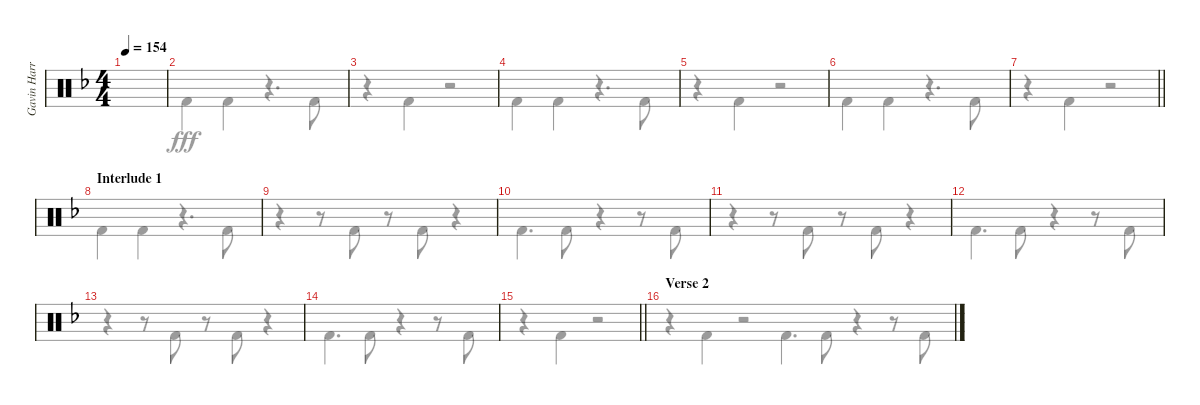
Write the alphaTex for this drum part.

\track ("Gavin Harrison Bass Pedal" "Gavin Harr") {instrument percussion}
\staff {score}
\articulation defaults
\voice
\ts (4 4)
\tempo 154
\clef neutral
\ks dminor
|
|
|
|
|
|
\barLineRight lightlight
|
\section ("" "Interlude 1")
|
|
|
|
|
|
|
\barLineRight lightlight
|
\section ("" "Verse 2")
\voice
\clef neutral
\ks dminor
r.4{dy fff} "Kick (hit) 2".4 r.2 |
"Kick (hit) 2".4 "Kick (hit) 2".4 r.4{d} "Kick (hit) 2".8 |
r.4 "Kick (hit) 2".4 r.2 |
"Kick (hit) 2".4 "Kick (hit) 2".4 r.4{d} "Kick (hit) 2".8 |
r.4 "Kick (hit) 2".4 r.2 |
"Kick (hit) 2".4 "Kick (hit) 2".4 r.4{d} "Kick (hit) 2".8 |
\barLineRight lightlight
r.4 "Kick (hit) 2".4 r.2 |
"Kick (hit) 2".4 "Kick (hit) 2".4 r.4{d} "Kick (hit) 2".8 |
r.4 r.8 "Kick (hit) 2".8 r.8 "Kick (hit) 2".8 r.4 |
"Kick (hit) 2".4{d} "Kick (hit) 2".8 r.4 r.8 "Kick (hit) 2".8 |
r.4 r.8 "Kick (hit) 2".8 r.8 "Kick (hit) 2".8 r.4 |
"Kick (hit) 2".4{d} "Kick (hit) 2".8 r.4 r.8 "Kick (hit) 2".8 |
r.4 r.8 "Kick (hit) 2".8 r.8 "Kick (hit) 2".8 r.4 |
"Kick (hit) 2".4{d} "Kick (hit) 2".8 r.4 r.8 "Kick (hit) 2".8 |
\barLineRight lightlight
r.4 "Kick (hit) 2".4 r.2 |
"Kick (hit) 2".4{d} "Kick (hit) 2".8 r.4 r.8 "Kick (hit) 2".8
